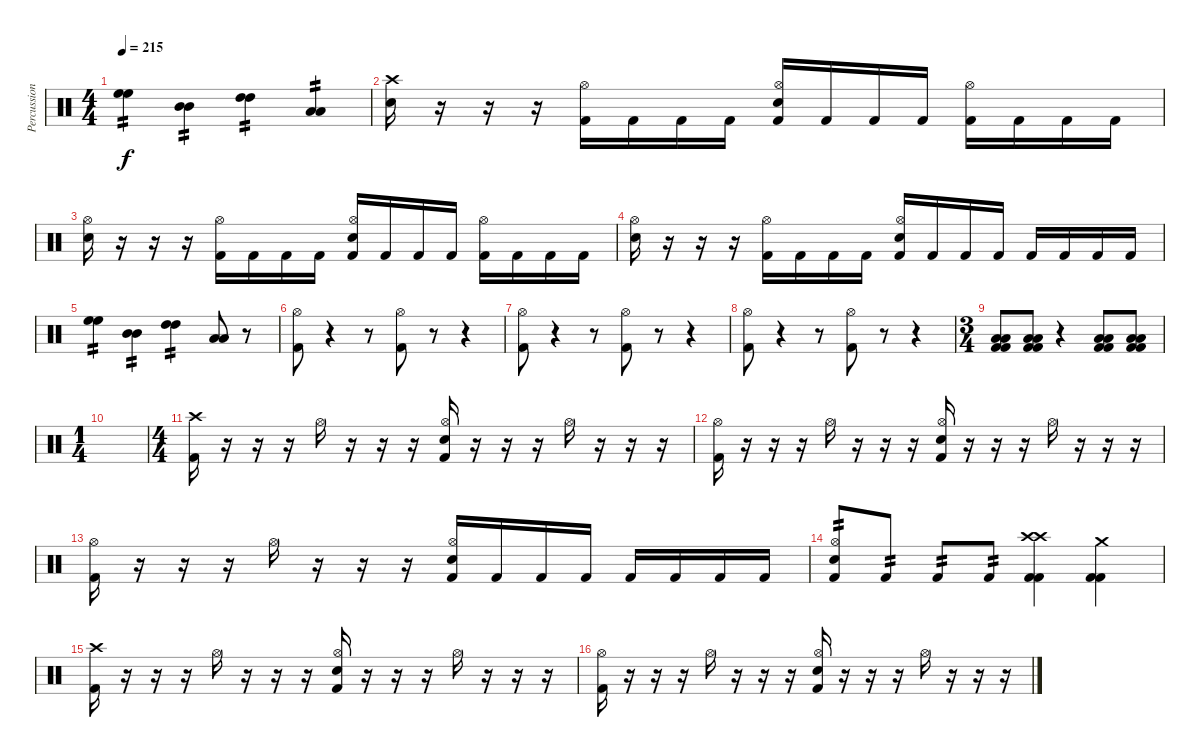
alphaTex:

\track ("Percussion" "Percussion") {instrument percussion}
\staff {score}
\articulation defaults
\ts (4 4)
\tempo 215
\clef neutral
\ks c
("High Floor Tom (hit)" "High Floor Tom (hit)").4{tp 2 dy f} ("Mid Tom (hit)" "Mid Tom (hit)").4{tp 2} ("High Tom (hit)" "High Tom (hit)").4{tp 2} ("Low Tom (hit)" "Low Tom (hit)").4{tp 2} |
("Crash high (hit)" "Electric Snare (hit)").16 r.16 r.16 r.16 ("Hi-Hat (open)" "Kick (hit) 2").16 "Kick (hit) 2".16 "Kick (hit) 2".16 "Kick (hit) 2".16 ("Hi-Hat (open)" "Electric Snare (hit)" "Kick (hit) 2").16 "Kick (hit) 2".16 "Kick (hit) 2".16 "Kick (hit) 2".16 ("Hi-Hat (open)" "Kick (hit) 2").16 "Kick (hit) 2".16 "Kick (hit) 2".16 "Kick (hit) 2".16 |
("Hi-Hat (open)" "Electric Snare (hit)").16 r.16 r.16 r.16 ("Hi-Hat (open)" "Kick (hit) 2").16 "Kick (hit) 2".16 "Kick (hit) 2".16 "Kick (hit) 2".16 ("Hi-Hat (open)" "Electric Snare (hit)" "Kick (hit) 2").16 "Kick (hit) 2".16 "Kick (hit) 2".16 "Kick (hit) 2".16 ("Hi-Hat (open)" "Kick (hit) 2").16 "Kick (hit) 2".16 "Kick (hit) 2".16 "Kick (hit) 2".16 |
("Hi-Hat (open)" "Electric Snare (hit)").16 r.16 r.16 r.16 ("Hi-Hat (open)" "Kick (hit) 2").16 "Kick (hit) 2".16 "Kick (hit) 2".16 "Kick (hit) 2".16 ("Hi-Hat (open)" "Electric Snare (hit)" "Kick (hit) 2").16 "Kick (hit) 2".16 "Kick (hit) 2".16 "Kick (hit) 2".16 "Kick (hit) 2".16 "Kick (hit) 2".16 "Kick (hit) 2".16 "Kick (hit) 2".16 |
("High Floor Tom (hit)" "High Floor Tom (hit)").4{tp 2} ("Mid Tom (hit)" "Mid Tom (hit)").4{tp 2} ("High Tom (hit)" "High Tom (hit)").4{tp 2} ("Low Tom (hit)" "Low Tom (hit)").8 r.8 |
("Hi-Hat (open)" "Kick (hit) 2").8 r.4 r.8 ("Hi-Hat (open)" "Kick (hit) 2").8 r.8 r.4 |
("Hi-Hat (open)" "Kick (hit) 2").8 r.4 r.8 ("Hi-Hat (open)" "Kick (hit) 2").8 r.8 r.4 |
("Hi-Hat (open)" "Kick (hit) 2").8 r.4 r.8 ("Hi-Hat (open)" "Kick (hit) 2").8 r.8 r.4 |
\ts (3 4)
("Low Floor Tom (hit)" "Low Floor Tom (hit)" "Kick (hit) 2" "Kick (hit) 2").8 ("Low Floor Tom (hit)" "Low Floor Tom (hit)" "Kick (hit) 2" "Kick (hit) 2").8 r.4 ("Low Floor Tom (hit)" "Low Floor Tom (hit)" "Kick (hit) 2" "Kick (hit) 2").8 ("Low Floor Tom (hit)" "Low Floor Tom (hit)" "Kick (hit) 2" "Kick (hit) 2").8 |
\ts (1 4)
|
\ts (4 4)
("Crash high (hit)" "Kick (hit) 2").16 r.16 r.16 r.16 "Hi-Hat (open)".16 r.16 r.16 r.16 ("Hi-Hat (open)" "Electric Snare (hit)" "Kick (hit) 2").16 r.16 r.16 r.16 "Hi-Hat (open)".16 r.16 r.16 r.16 |
("Hi-Hat (open)" "Kick (hit) 2").16 r.16 r.16 r.16 "Hi-Hat (open)".16 r.16 r.16 r.16 ("Hi-Hat (open)" "Electric Snare (hit)" "Kick (hit) 2").16 r.16 r.16 r.16 "Hi-Hat (open)".16 r.16 r.16 r.16 |
("Hi-Hat (open)" "Kick (hit) 2").16 r.16 r.16 r.16 "Hi-Hat (open)".16 r.16 r.16 r.16 ("Hi-Hat (open)" "Electric Snare (hit)" "Kick (hit) 2").16 "Kick (hit) 2".16 "Kick (hit) 2".16 "Kick (hit) 2".16 "Kick (hit) 2".16 "Kick (hit) 2".16 "Kick (hit) 2".16 "Kick (hit) 2".16 |
("Hi-Hat (open)" "Electric Snare (hit)" "Kick (hit) 2").8{tp 2} "Kick (hit) 2".8{tp 2} "Kick (hit) 2".8{tp 2} "Kick (hit) 2".8{tp 2} ("Crash high (hit)" "Crash high (hit)" "Kick (hit) 2" "Kick (hit) 2").4 ("Crash medium (hit)" "Kick (hit) 2" "Kick (hit) 2").4 |
("Crash high (hit)" "Kick (hit) 2").16 r.16 r.16 r.16 "Hi-Hat (open)".16 r.16 r.16 r.16 ("Hi-Hat (open)" "Electric Snare (hit)" "Kick (hit) 2").16 r.16 r.16 r.16 "Hi-Hat (open)".16 r.16 r.16 r.16 |
("Hi-Hat (open)" "Kick (hit) 2").16 r.16 r.16 r.16 "Hi-Hat (open)".16 r.16 r.16 r.16 ("Hi-Hat (open)" "Electric Snare (hit)" "Kick (hit) 2").16 r.16 r.16 r.16 "Hi-Hat (open)".16 r.16 r.16 r.16
